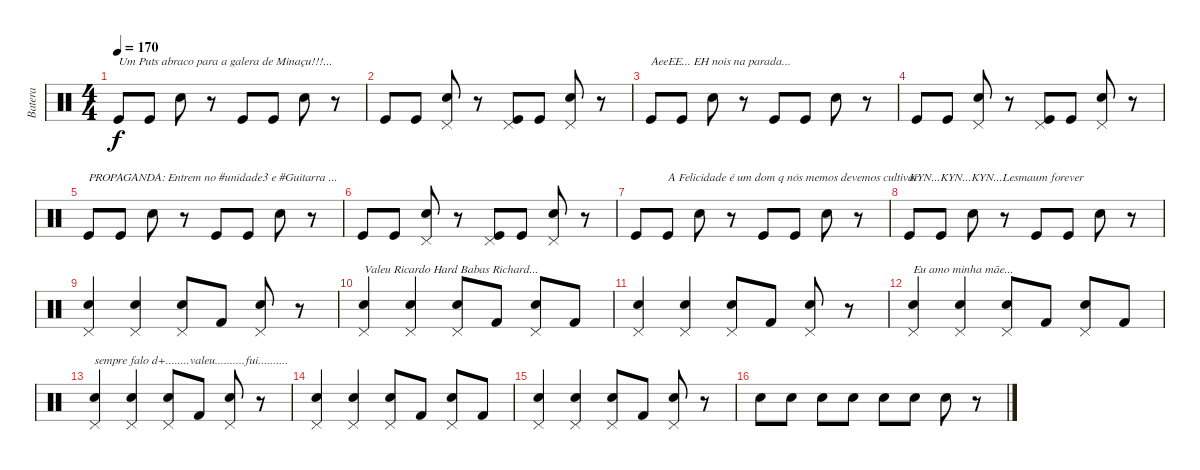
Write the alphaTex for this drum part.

\track ("Batera" "Batera") {instrument percussion}
\staff {score}
\articulation defaults
\ts (4 4)
\tempo 170
\clef neutral
\ks c "Kick (hit)".8{txt "Um Puts abraco para a galera de Minaçu!!!..." dy f} "Kick (hit)".8 "Electric Snare (hit)".8
r.8 "Kick (hit)".8 "Kick (hit)".8 "Electric Snare (hit)".8 r.8 |
"Kick (hit)".8 "Kick (hit)".8 ("Pedal Hi-Hat (hit)" "Electric Snare (hit)").8 r.8 ("Pedal Hi-Hat (hit)" "Kick (hit)").8 "Kick (hit)".8 ("Pedal Hi-Hat (hit)" "Electric Snare (hit)").8 r.8 |
"Kick (hit)".8{txt "AeeEE... EH nois na parada..."} "Kick (hit)".8 "Electric Snare (hit)".8 r.8 "Kick (hit)".8 "Kick (hit)".8 "Electric Snare (hit)".8 r.8 |
"Kick (hit)".8 "Kick (hit)".8 ("Pedal Hi-Hat (hit)" "Electric Snare (hit)").8 r.8 ("Pedal Hi-Hat (hit)" "Kick (hit)").8 "Kick (hit)".8 ("Pedal Hi-Hat (hit)" "Electric Snare (hit)").8 r.8 |
"Kick (hit)".8{txt "PROPAGANDA: Entrem no #unidade3 e #Guitarra ..."} "Kick (hit)".8 "Electric Snare (hit)".8 r.8 "Kick (hit)".8 "Kick (hit)".8 "Electric Snare (hit)".8 r.8 |
"Kick (hit)".8 "Kick (hit)".8 ("Pedal Hi-Hat (hit)" "Electric Snare (hit)").8 r.8 ("Pedal Hi-Hat (hit)" "Kick (hit)").8 "Kick (hit)".8 ("Pedal Hi-Hat (hit)" "Electric Snare (hit)").8 r.8 |
"Kick (hit)".8 "Kick (hit)".8{txt "A Felicidade é um dom q nós memos devemos cultivar"} "Electric Snare (hit)".8 r.8 "Kick (hit)".8 "Kick (hit)".8 "Electric Snare (hit)".8 r.8 |
"Kick (hit)".8{txt "KYN...KYN...KYN...Lesmaum forever"} "Kick (hit)".8 "Electric Snare (hit)".8 r.8 "Kick (hit)".8 "Kick (hit)".8 "Electric Snare (hit)".8 r.8 |
("Pedal Hi-Hat (hit)" "Electric Snare (hit)").4 ("Pedal Hi-Hat (hit)" "Electric Snare (hit)").4 ("Pedal Hi-Hat (hit)" "Electric Snare (hit)").8 "Kick (hit) 2".8 ("Pedal Hi-Hat (hit)" "Electric Snare (hit)").8 r.8 |
("Pedal Hi-Hat (hit)" "Electric Snare (hit)").4{txt "Valeu Ricardo Hard Babas Richard..."} ("Pedal Hi-Hat (hit)" "Electric Snare (hit)").4 ("Pedal Hi-Hat (hit)" "Electric Snare (hit)").8 "Kick (hit) 2".8 ("Pedal Hi-Hat (hit)" "Electric Snare (hit)").8 "Kick (hit) 2".8 |
("Pedal Hi-Hat (hit)" "Electric Snare (hit)").4 ("Pedal Hi-Hat (hit)" "Electric Snare (hit)").4 ("Pedal Hi-Hat (hit)" "Electric Snare (hit)").8 "Kick (hit) 2".8 ("Pedal Hi-Hat (hit)" "Electric Snare (hit)").8 r.8 |
("Pedal Hi-Hat (hit)" "Electric Snare (hit)").4{txt "Eu amo minha mãe..."} ("Pedal Hi-Hat (hit)" "Electric Snare (hit)").4 ("Pedal Hi-Hat (hit)" "Electric Snare (hit)").8 "Kick (hit) 2".8 ("Pedal Hi-Hat (hit)" "Electric Snare (hit)").8 "Kick (hit) 2".8 |
("Pedal Hi-Hat (hit)" "Electric Snare (hit)").4{txt "sempre falo d+........valeu..........fui.........."} ("Pedal Hi-Hat (hit)" "Electric Snare (hit)").4 ("Pedal Hi-Hat (hit)" "Electric Snare (hit)").8 "Kick (hit) 2".8 ("Pedal Hi-Hat (hit)" "Electric Snare (hit)").8 r.8 |
("Pedal Hi-Hat (hit)" "Electric Snare (hit)").4 ("Pedal Hi-Hat (hit)" "Electric Snare (hit)").4 ("Pedal Hi-Hat (hit)" "Electric Snare (hit)").8 "Kick (hit) 2".8 ("Pedal Hi-Hat (hit)" "Electric Snare (hit)").8 "Kick (hit) 2".8 |
("Pedal Hi-Hat (hit)" "Electric Snare (hit)").4 ("Pedal Hi-Hat (hit)" "Electric Snare (hit)").4 ("Pedal Hi-Hat (hit)" "Electric Snare (hit)").8 "Kick (hit) 2".8 ("Pedal Hi-Hat (hit)" "Electric Snare (hit)").8 r.8 |
"Electric Snare (hit)".8 "Electric Snare (hit)".8 "Electric Snare (hit)".8 "Electric Snare (hit)".8 "Electric Snare (hit)".8 "Electric Snare (hit)".8 "Electric Snare (hit)".8 r.8
